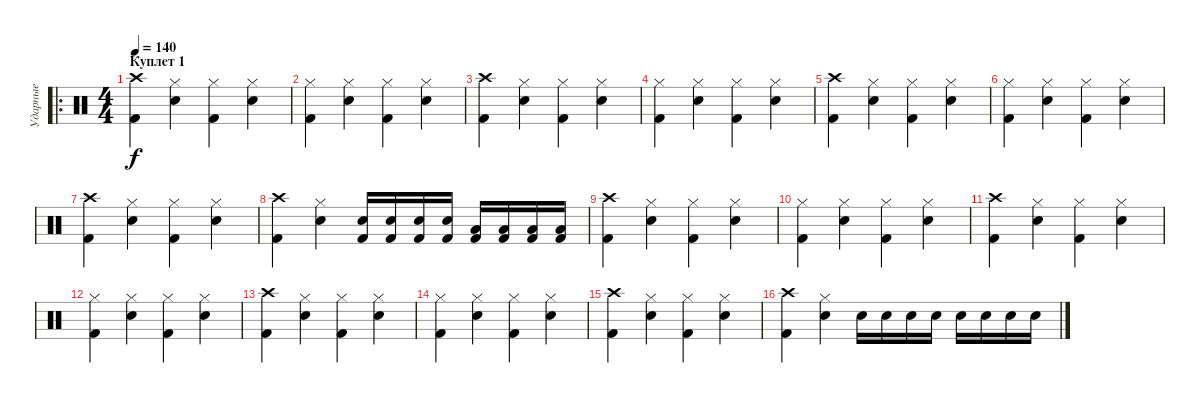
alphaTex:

\track ("Ударные" "Ударные") {instrument percussion}
\staff {score}
\articulation defaults
\ro
\ts (4 4)
\section ("" "Куплет 1")
\tempo 140
\clef neutral
\ks c
("Crash high (hit)" "Kick (hit) 2").4{dy f} ("Hi-Hat (closed)" "Snare (hit) 2").4 ("Hi-Hat (closed)" "Kick (hit) 2").4 ("Hi-Hat (closed)" "Snare (hit) 2").4 |
("Hi-Hat (closed)" "Kick (hit) 2").4 ("Hi-Hat (closed)" "Snare (hit) 2").4 ("Hi-Hat (closed)" "Kick (hit) 2").4 ("Hi-Hat (closed)" "Snare (hit) 2").4 |
("Crash high (hit)" "Kick (hit) 2").4 ("Hi-Hat (closed)" "Snare (hit) 2").4 ("Hi-Hat (closed)" "Kick (hit) 2").4 ("Hi-Hat (closed)" "Snare (hit) 2").4 |
("Hi-Hat (closed)" "Kick (hit) 2").4 ("Hi-Hat (closed)" "Snare (hit) 2").4 ("Hi-Hat (closed)" "Kick (hit) 2").4 ("Hi-Hat (closed)" "Snare (hit) 2").4 |
("Crash high (hit)" "Kick (hit) 2").4 ("Hi-Hat (closed)" "Snare (hit) 2").4 ("Hi-Hat (closed)" "Kick (hit) 2").4 ("Hi-Hat (closed)" "Snare (hit) 2").4 |
("Hi-Hat (closed)" "Kick (hit) 2").4 ("Hi-Hat (closed)" "Snare (hit) 2").4 ("Hi-Hat (closed)" "Kick (hit) 2").4 ("Hi-Hat (closed)" "Snare (hit) 2").4 |
("Crash high (hit)" "Kick (hit) 2").4 ("Hi-Hat (closed)" "Snare (hit) 2").4 ("Hi-Hat (closed)" "Kick (hit) 2").4 ("Hi-Hat (closed)" "Snare (hit) 2").4 |
("Crash high (hit)" "Kick (hit) 2").4 ("Hi-Hat (closed)" "Snare (hit) 2").4 ("Snare (hit) 2" "Kick (hit) 2").16 ("Snare (hit) 2" "Kick (hit) 2").16 ("Snare (hit) 2" "Kick (hit) 2").16 ("Snare (hit) 2" "Kick (hit) 2").16 ("Low Tom (hit)" "Kick (hit) 2").16 ("Low Tom (hit)" "Kick (hit) 2").16 ("Low Tom (hit)" "Kick (hit) 2").16 ("Low Tom (hit)" "Kick (hit) 2").16 |
("Crash high (hit)" "Kick (hit) 2").4 ("Hi-Hat (closed)" "Snare (hit) 2").4 ("Hi-Hat (closed)" "Kick (hit) 2").4 ("Hi-Hat (closed)" "Snare (hit) 2").4 |
("Hi-Hat (closed)" "Kick (hit) 2").4 ("Hi-Hat (closed)" "Snare (hit) 2").4 ("Hi-Hat (closed)" "Kick (hit) 2").4 ("Hi-Hat (closed)" "Snare (hit) 2").4 |
("Crash high (hit)" "Kick (hit) 2").4 ("Hi-Hat (closed)" "Snare (hit) 2").4 ("Hi-Hat (closed)" "Kick (hit) 2").4 ("Hi-Hat (closed)" "Snare (hit) 2").4 |
("Hi-Hat (closed)" "Kick (hit) 2").4 ("Hi-Hat (closed)" "Snare (hit) 2").4 ("Hi-Hat (closed)" "Kick (hit) 2").4 ("Hi-Hat (closed)" "Snare (hit) 2").4 |
("Crash high (hit)" "Kick (hit) 2").4 ("Hi-Hat (closed)" "Snare (hit) 2").4 ("Hi-Hat (closed)" "Kick (hit) 2").4 ("Hi-Hat (closed)" "Snare (hit) 2").4 |
("Hi-Hat (closed)" "Kick (hit) 2").4 ("Hi-Hat (closed)" "Snare (hit) 2").4 ("Hi-Hat (closed)" "Kick (hit) 2").4 ("Hi-Hat (closed)" "Snare (hit) 2").4 |
("Crash high (hit)" "Kick (hit) 2").4 ("Hi-Hat (closed)" "Snare (hit) 2").4 ("Hi-Hat (closed)" "Kick (hit) 2").4 ("Hi-Hat (closed)" "Snare (hit) 2").4 |
("Crash high (hit)" "Kick (hit) 2").4 ("Hi-Hat (closed)" "Snare (hit) 2").4 "Snare (hit) 2".16 "Snare (hit) 2".16 "Snare (hit) 2".16 "Snare (hit) 2".16 "Snare (hit) 2".16 "Snare (hit) 2".16 "Snare (hit) 2".16 "Snare (hit) 2".16
